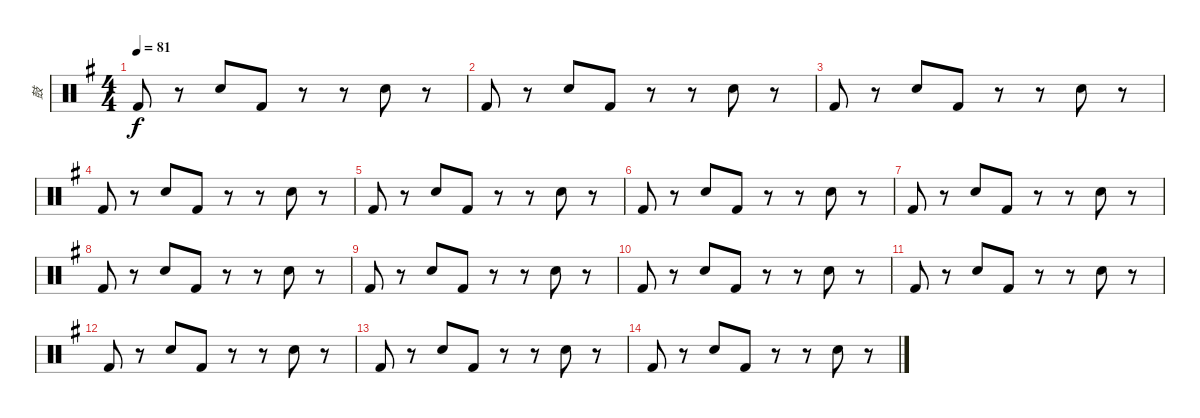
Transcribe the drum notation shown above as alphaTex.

\track ("鼓" "鼓") {instrument percussion}
\staff {score}
\articulation defaults
\ts (4 4)
\tempo 81
\clef neutral
\ks g "Kick (hit) 2".8{dy f}
r.8 "Electric Snare (hit)".8 "Kick (hit) 2".8 r.8 r.8 "Electric Snare (hit)".8 r.8 |
"Kick (hit) 2".8 r.8 "Electric Snare (hit)".8 "Kick (hit) 2".8 r.8 r.8 "Electric Snare (hit)".8 r.8 |
"Kick (hit) 2".8 r.8 "Electric Snare (hit)".8 "Kick (hit) 2".8 r.8 r.8 "Electric Snare (hit)".8 r.8 |
"Kick (hit) 2".8 r.8 "Electric Snare (hit)".8 "Kick (hit) 2".8 r.8 r.8 "Electric Snare (hit)".8 r.8 |
"Kick (hit) 2".8 r.8 "Electric Snare (hit)".8 "Kick (hit) 2".8 r.8 r.8 "Electric Snare (hit)".8 r.8 |
"Kick (hit) 2".8 r.8 "Electric Snare (hit)".8 "Kick (hit) 2".8 r.8 r.8 "Electric Snare (hit)".8 r.8 |
"Kick (hit) 2".8 r.8 "Electric Snare (hit)".8 "Kick (hit) 2".8 r.8 r.8 "Electric Snare (hit)".8 r.8 |
"Kick (hit) 2".8 r.8 "Electric Snare (hit)".8 "Kick (hit) 2".8 r.8 r.8 "Electric Snare (hit)".8 r.8 |
"Kick (hit) 2".8 r.8 "Electric Snare (hit)".8 "Kick (hit) 2".8 r.8 r.8 "Electric Snare (hit)".8 r.8 |
"Kick (hit) 2".8 r.8 "Electric Snare (hit)".8 "Kick (hit) 2".8 r.8 r.8 "Electric Snare (hit)".8 r.8 |
"Kick (hit) 2".8 r.8 "Electric Snare (hit)".8 "Kick (hit) 2".8 r.8 r.8 "Electric Snare (hit)".8 r.8 |
"Kick (hit) 2".8 r.8 "Electric Snare (hit)".8 "Kick (hit) 2".8 r.8 r.8 "Electric Snare (hit)".8 r.8 |
"Kick (hit) 2".8 r.8 "Electric Snare (hit)".8 "Kick (hit) 2".8 r.8 r.8 "Electric Snare (hit)".8 r.8 |
"Kick (hit) 2".8 r.8 "Electric Snare (hit)".8 "Kick (hit) 2".8 r.8 r.8 "Electric Snare (hit)".8 r.8
